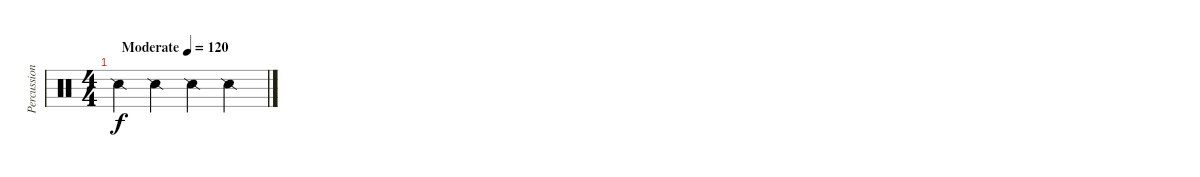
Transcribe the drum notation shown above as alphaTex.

\track ("Percussion" "Percussion") {instrument percussion}
\staff {score}
\articulation defaults
\ts (4 4)
\tempo (120 "Moderate")
\clef neutral
\ks c "Snare (side stick) 2".4{dy f} "Snare (side stick) 2".4 "Snare (side stick) 2".4 "Snare (side stick) 2".4
